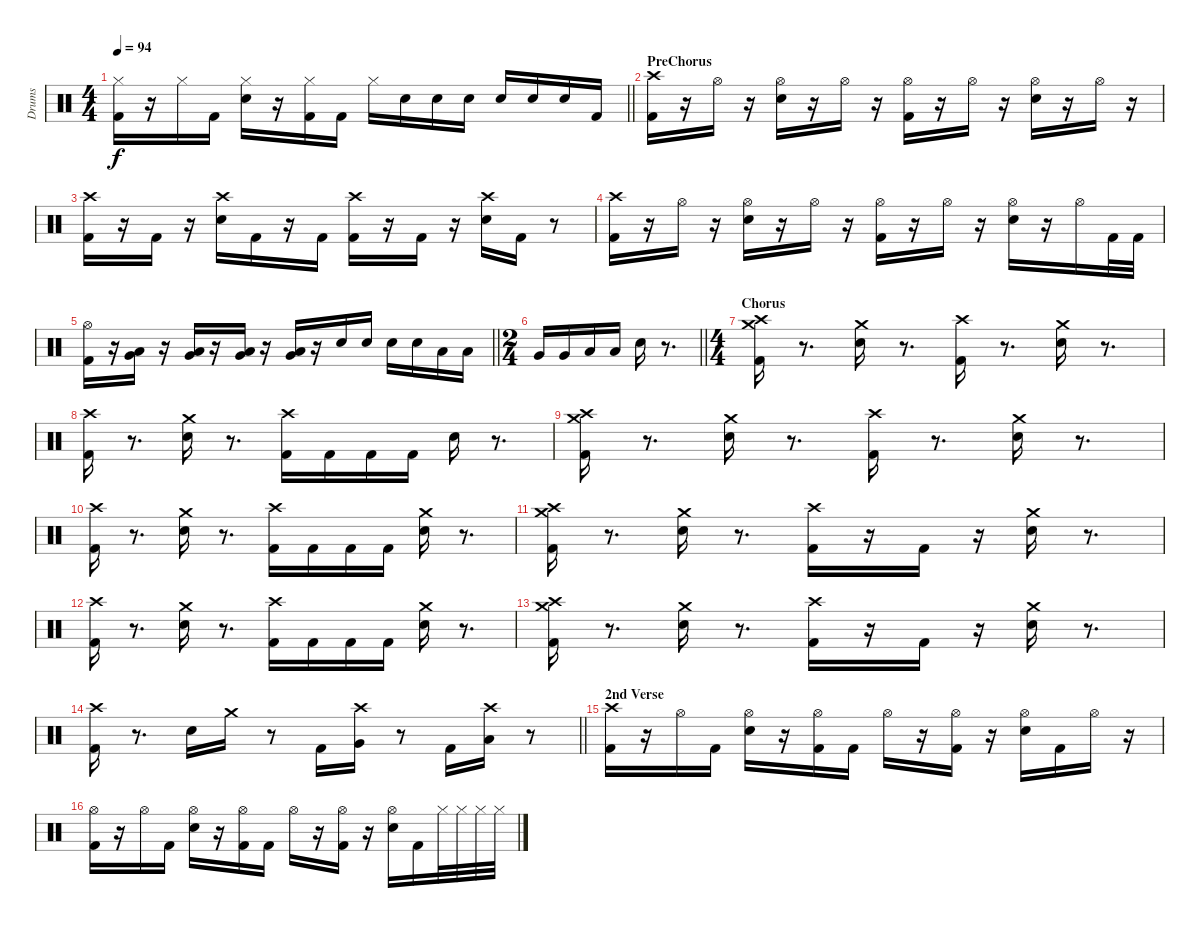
\track ("Drums" "Drums") {instrument percussion}
\staff {score}
\articulation defaults
\ts (4 4)
\tempo 94
\clef neutral
\barLineRight lightlight
\ks c
("Kick (hit) 2" "Hi-Hat (closed)").16{dy f} r.16 "Hi-Hat (closed)".16 "Kick (hit) 2".16 ("Snare (hit) 2" "Hi-Hat (closed)").16 r.16 ("Kick (hit) 2" "Hi-Hat (closed)").16 "Kick (hit) 2".16 "Hi-Hat (closed)".16 "Snare (hit) 2".16 "Snare (hit) 2".16 "Snare (hit) 2".16 "Snare (hit) 2".16 "Snare (hit) 2".16 "Snare (hit) 2".16 "Kick (hit) 2".16 |
\section ("" "PreChorus")
("Kick (hit) 2" "Crash high (hit)").16 r.16 "Hi-Hat (open)".16 r.16 ("Snare (hit) 2" "Hi-Hat (open)").16 r.16 "Hi-Hat (open)".16 r.16 ("Kick (hit) 2" "Hi-Hat (open)").16 r.16 "Hi-Hat (open)".16 r.16 ("Snare (hit) 2" "Hi-Hat (open)").16 r.16 "Hi-Hat (open)".16 r.16 |
("Kick (hit) 2" "Crash high (hit)").16 r.16 "Kick (hit) 2".16 r.16 ("Snare (hit) 2" "Crash high (hit)").16 "Kick (hit) 2".16 r.16 "Kick (hit) 2".16 ("Kick (hit) 2" "Crash high (hit)").16 r.16 "Kick (hit) 2".16 r.16 ("Snare (hit) 2" "Crash high (hit)").16 "Kick (hit) 2".16 r.8 |
("Kick (hit) 2" "Crash high (hit)").16 r.16 "Hi-Hat (open)".16 r.16 ("Snare (hit) 2" "Hi-Hat (open)").16 r.16 "Hi-Hat (open)".16 r.16 ("Kick (hit) 2" "Hi-Hat (open)").16 r.16 "Hi-Hat (open)".16 r.16 ("Snare (hit) 2" "Hi-Hat (open)").16 r.16 "Hi-Hat (open)".16 "Kick (hit) 2".32 "Kick (hit) 2".32 |
\barLineRight lightlight
("Kick (hit) 2" "Hi-Hat (open)").16 r.16 ("Low Floor Tom (hit)" "Very Low Tom (hit)").16 r.16 ("Low Floor Tom (hit)" "Very Low Tom (hit)").16 r.16 ("Low Floor Tom (hit)" "Very Low Tom (hit)").16 r.16 ("Low Floor Tom (hit)" "Very Low Tom (hit)").16 r.16 "Snare (hit) 2".16 "Snare (hit) 2".16 "Snare (hit) 2".16 "Snare (hit) 2".16 "Low Tom (hit)".16 "Low Tom (hit)".16 |
\ts (2 4)
\barLineRight lightlight "Very Low Tom (hit)".16 "Very Low Tom (hit)".16 "Low Floor Tom (hit)".16 "Low Floor Tom (hit)".16 "Snare (hit) 2".16
r.8{d} |
\ts (4 4)
\section ("" "Chorus")
("Kick (hit) 2" "Crash high (hit)" "Crash medium (hit)").16 r.8{d} ("Snare (hit) 2" "Crash medium (hit)").16 r.8{d} ("Kick (hit) 2" "Crash high (hit)").16 r.8{d} ("Snare (hit) 2" "Crash medium (hit)").16 r.8{d} |
("Kick (hit) 2" "Crash high (hit)").16 r.8{d} ("Snare (hit) 2" "Crash medium (hit)").16 r.8{d} ("Kick (hit) 2" "Crash high (hit)").16 "Kick (hit) 2".16 "Kick (hit) 2".16 "Kick (hit) 2".16 "Snare (hit) 2".16 r.8{d} |
("Kick (hit) 2" "Crash high (hit)" "Crash medium (hit)").16 r.8{d} ("Snare (hit) 2" "Crash medium (hit)").16 r.8{d} ("Kick (hit) 2" "Crash high (hit)").16 r.8{d} ("Snare (hit) 2" "Crash medium (hit)").16 r.8{d} |
("Kick (hit) 2" "Crash high (hit)").16 r.8{d} ("Snare (hit) 2" "Crash medium (hit)").16 r.8{d} ("Kick (hit) 2" "Crash high (hit)").16 "Kick (hit) 2".16 "Kick (hit) 2".16 "Kick (hit) 2".16 ("Snare (hit) 2" "Crash medium (hit)").16 r.8{d} |
("Kick (hit) 2" "Crash high (hit)" "Crash medium (hit)").16 r.8{d} ("Snare (hit) 2" "Crash medium (hit)").16 r.8{d} ("Kick (hit) 2" "Crash high (hit)").16 r.16 "Kick (hit) 2".16 r.16 ("Snare (hit) 2" "Crash medium (hit)").16 r.8{d} |
("Kick (hit) 2" "Crash high (hit)").16 r.8{d} ("Snare (hit) 2" "Crash medium (hit)").16 r.8{d} ("Kick (hit) 2" "Crash high (hit)").16 "Kick (hit) 2".16 "Kick (hit) 2".16 "Kick (hit) 2".16 ("Snare (hit) 2" "Crash medium (hit)").16 r.8{d} |
("Kick (hit) 2" "Crash high (hit)" "Crash medium (hit)").16 r.8{d} ("Snare (hit) 2" "Crash medium (hit)").16 r.8{d} ("Kick (hit) 2" "Crash high (hit)").16 r.16 "Kick (hit) 2".16 r.16 ("Snare (hit) 2" "Crash medium (hit)").16 r.8{d} |
\barLineRight lightlight
("Kick (hit) 2" "Crash high (hit)").16 r.8{d} "Snare (hit) 2".16 "Crash medium (hit)".16 r.8 "Kick (hit) 2".16 ("Very Low Tom (hit)" "Crash high (hit)").16 r.8 "Kick (hit) 2".16 ("Low Floor Tom (hit)" "Crash high (hit)").16 r.8 |
\section ("" "2nd Verse")
("Kick (hit) 2" "Crash high (hit)").16 r.16 "Hi-Hat (open)".16 "Kick (hit) 2".16 ("Snare (hit) 2" "Hi-Hat (open)").16 r.16 ("Kick (hit) 2" "Hi-Hat (open)").16 "Kick (hit) 2".16 "Hi-Hat (open)".16 r.16 ("Kick (hit) 2" "Hi-Hat (open)").16 r.16 ("Snare (hit) 2" "Hi-Hat (open)").16 "Kick (hit) 2".16 "Hi-Hat (open)".16 r.16 |
("Kick (hit) 2" "Hi-Hat (open)").16 r.16 "Hi-Hat (open)".16 "Kick (hit) 2".16 ("Snare (hit) 2" "Hi-Hat (open)").16 r.16 ("Kick (hit) 2" "Hi-Hat (open)").16 "Kick (hit) 2".16 "Hi-Hat (open)".16 r.16 ("Kick (hit) 2" "Hi-Hat (open)").16 r.16 ("Snare (hit) 2" "Hi-Hat (open)").16 "Kick (hit) 2".16 "Hi-Hat (closed)".32 "Hi-Hat (closed)".32 "Hi-Hat (closed)".32 "Hi-Hat (closed)".32
